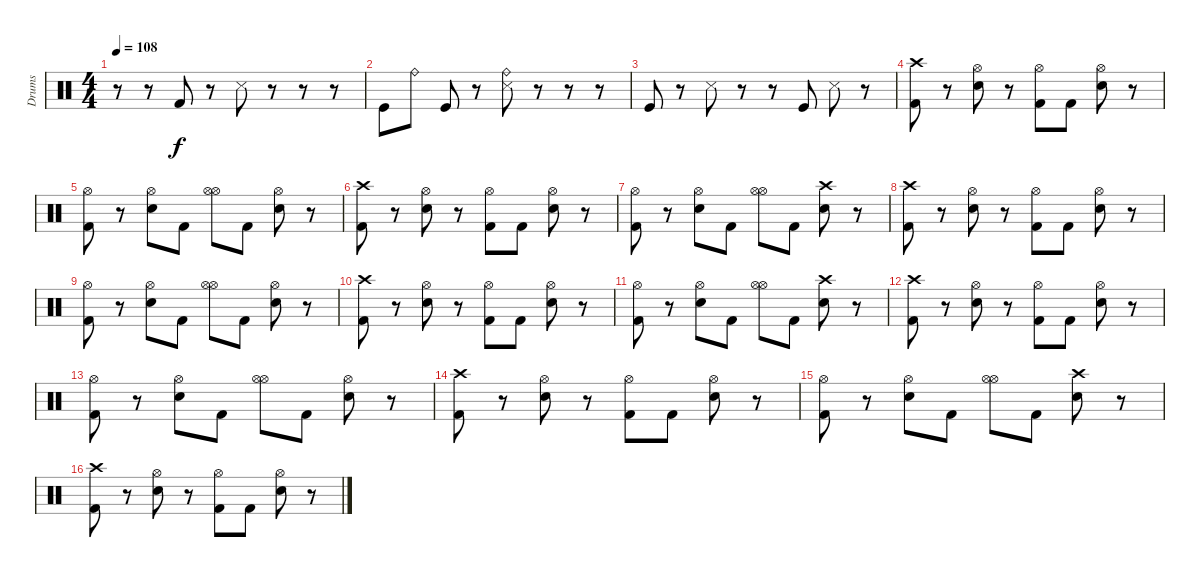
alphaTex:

\track ("Drums" "Drums") {instrument percussion}
\staff {score}
\articulation defaults
\ts (4 4)
\tempo 108
\clef neutral
\ks c
r.8{dy f} r.8 "Kick (hit) 2".8 r.8 "Snare (side stick) 3".8 r.8 r.8 r.8 |
"Kick (hit)".8 "Ride (bell)".8 "Kick (hit)".8 r.8 ("Ride (bell)" "Snare (side stick) 3").8 r.8 r.8 r.8 |
"Kick (hit)".8 r.8 "Snare (side stick) 3".8 r.8 r.8 "Kick (hit)".8 "Snare (side stick) 3".8 r.8 |
("Crash high (hit)" "Kick (hit) 2").8 r.8 ("Hi-Hat (open)" "Snare (hit) 2").8 r.8 ("Hi-Hat (open)" "Kick (hit) 2").8 "Kick (hit) 2".8 ("Hi-Hat (open)" "Snare (hit) 2").8 r.8 |
("Hi-Hat (open)" "Kick (hit) 2").8 r.8 ("Hi-Hat (open)" "Snare (hit) 2").8 "Kick (hit) 2".8 ("Hi-Hat (open)" "Hi-Hat (open)").8 "Kick (hit) 2".8 ("Hi-Hat (open)" "Snare (hit) 2").8 r.8 |
("Crash high (hit)" "Kick (hit) 2").8 r.8 ("Hi-Hat (open)" "Snare (hit) 2").8 r.8 ("Hi-Hat (open)" "Kick (hit) 2").8 "Kick (hit) 2".8 ("Hi-Hat (open)" "Snare (hit) 2").8 r.8 |
("Hi-Hat (open)" "Kick (hit) 2").8 r.8 ("Hi-Hat (open)" "Snare (hit) 2").8 "Kick (hit) 2".8 ("Hi-Hat (open)" "Hi-Hat (open)").8 "Kick (hit) 2".8 ("Crash high (hit)" "Snare (hit) 2").8 r.8 |
("Crash high (hit)" "Kick (hit) 2").8 r.8 ("Hi-Hat (open)" "Snare (hit) 2").8 r.8 ("Hi-Hat (open)" "Kick (hit) 2").8 "Kick (hit) 2".8 ("Hi-Hat (open)" "Snare (hit) 2").8 r.8 |
("Hi-Hat (open)" "Kick (hit) 2").8 r.8 ("Hi-Hat (open)" "Snare (hit) 2").8 "Kick (hit) 2".8 ("Hi-Hat (open)" "Hi-Hat (open)").8 "Kick (hit) 2".8 ("Hi-Hat (open)" "Snare (hit) 2").8 r.8 |
("Crash high (hit)" "Kick (hit) 2").8 r.8 ("Hi-Hat (open)" "Snare (hit) 2").8 r.8 ("Hi-Hat (open)" "Kick (hit) 2").8 "Kick (hit) 2".8 ("Hi-Hat (open)" "Snare (hit) 2").8 r.8 |
("Hi-Hat (open)" "Kick (hit) 2").8 r.8 ("Hi-Hat (open)" "Snare (hit) 2").8 "Kick (hit) 2".8 ("Hi-Hat (open)" "Hi-Hat (open)").8 "Kick (hit) 2".8 ("Crash high (hit)" "Snare (hit) 2").8 r.8 |
("Crash high (hit)" "Kick (hit) 2").8 r.8 ("Hi-Hat (open)" "Snare (hit) 2").8 r.8 ("Hi-Hat (open)" "Kick (hit) 2").8 "Kick (hit) 2".8 ("Hi-Hat (open)" "Snare (hit) 2").8 r.8 |
("Hi-Hat (open)" "Kick (hit) 2").8 r.8 ("Hi-Hat (open)" "Snare (hit) 2").8 "Kick (hit) 2".8 ("Hi-Hat (open)" "Hi-Hat (open)").8 "Kick (hit) 2".8 ("Hi-Hat (open)" "Snare (hit) 2").8 r.8 |
("Crash high (hit)" "Kick (hit) 2").8 r.8 ("Hi-Hat (open)" "Snare (hit) 2").8 r.8 ("Hi-Hat (open)" "Kick (hit) 2").8 "Kick (hit) 2".8 ("Hi-Hat (open)" "Snare (hit) 2").8 r.8 |
("Hi-Hat (open)" "Kick (hit) 2").8 r.8 ("Hi-Hat (open)" "Snare (hit) 2").8 "Kick (hit) 2".8 ("Hi-Hat (open)" "Hi-Hat (open)").8 "Kick (hit) 2".8 ("Crash high (hit)" "Snare (hit) 2").8 r.8 |
("Crash high (hit)" "Kick (hit) 2").8 r.8 ("Hi-Hat (open)" "Snare (hit) 2").8 r.8 ("Hi-Hat (open)" "Kick (hit) 2").8 "Kick (hit) 2".8 ("Hi-Hat (open)" "Snare (hit) 2").8 r.8
